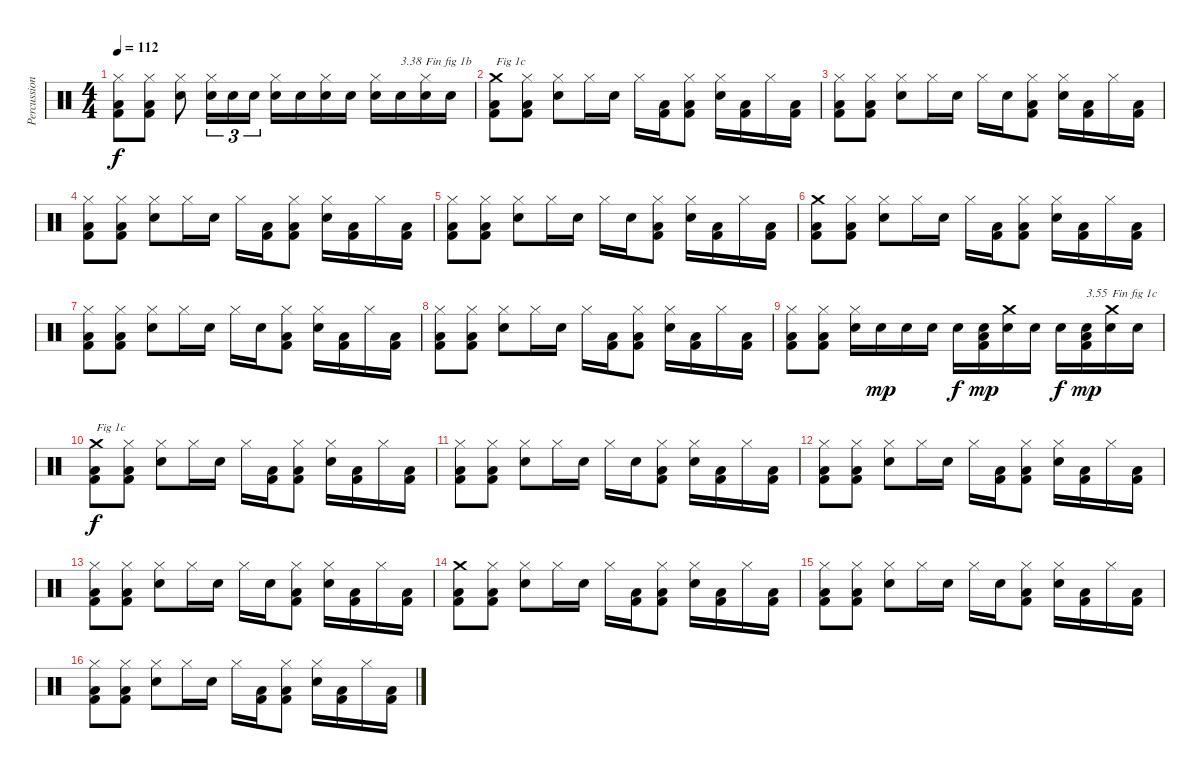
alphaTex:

\track ("Percussions" "Percussion") {instrument percussion}
\staff {score}
\articulation defaults
\ts (4 4)
\tempo 112
\clef neutral
\ks c
("Kick (hit) 2" "Low Floor Tom (hit)" "Hi-Hat (closed)").8{dy f} ("Kick (hit) 2" "Low Floor Tom (hit)" "Hi-Hat (closed)").8 ("Snare (hit) 2" "Hi-Hat (closed)").8 ("Snare (hit) 2" "Hi-Hat (closed)").16{tu (3 2)} "Snare (hit) 2".16{tu (3 2)} "Snare (hit) 2".16{tu (3 2)} ("Snare (hit) 2" "Hi-Hat (closed)").16 "Snare (hit) 2".16 ("Snare (hit) 2" "Hi-Hat (closed)").16 "Snare (hit) 2".16 ("Snare (hit) 2" "Hi-Hat (closed)").16 "Snare (hit) 2".16{txt "3.38"} ("Snare (hit) 2" "Hi-Hat (closed)").16{txt "Fin fig 1b"} "Snare (hit) 2".16 |
("Kick (hit) 2" "Low Floor Tom (hit)" "Crash medium (hit)").8{txt "Fig 1c"} ("Kick (hit) 2" "Low Floor Tom (hit)" "Hi-Hat (closed)").8 ("Snare (hit) 2" "Hi-Hat (closed)").8 "Hi-Hat (closed)".16 "Snare (hit) 2".16 "Hi-Hat (closed)".16 ("Kick (hit) 2" "Low Floor Tom (hit)").16 ("Kick (hit) 2" "Low Floor Tom (hit)" "Hi-Hat (closed)").8 ("Snare (hit) 2" "Hi-Hat (closed)").16 ("Kick (hit) 2" "Low Floor Tom (hit)").16 "Hi-Hat (closed)".16 ("Kick (hit) 2" "Low Floor Tom (hit)").16 |
("Kick (hit) 2" "Low Floor Tom (hit)" "Hi-Hat (closed)").8 ("Kick (hit) 2" "Low Floor Tom (hit)" "Hi-Hat (closed)").8 ("Snare (hit) 2" "Hi-Hat (closed)").8 "Hi-Hat (closed)".16 "Snare (hit) 2".16 "Hi-Hat (closed)".16 "Snare (hit) 2".16 ("Kick (hit) 2" "Low Floor Tom (hit)" "Hi-Hat (closed)").8 ("Snare (hit) 2" "Hi-Hat (closed)").16 ("Kick (hit) 2" "Low Floor Tom (hit)").16 "Hi-Hat (closed)".16 ("Kick (hit) 2" "Low Floor Tom (hit)").16 |
("Kick (hit) 2" "Low Floor Tom (hit)" "Hi-Hat (closed)").8 ("Kick (hit) 2" "Low Floor Tom (hit)" "Hi-Hat (closed)").8 ("Snare (hit) 2" "Hi-Hat (closed)").8 "Hi-Hat (closed)".16 "Snare (hit) 2".16 "Hi-Hat (closed)".16 ("Kick (hit) 2" "Low Floor Tom (hit)").16 ("Kick (hit) 2" "Low Floor Tom (hit)" "Hi-Hat (closed)").8 ("Snare (hit) 2" "Hi-Hat (closed)").16 ("Kick (hit) 2" "Low Floor Tom (hit)").16 "Hi-Hat (closed)".16 ("Kick (hit) 2" "Low Floor Tom (hit)").16 |
("Kick (hit) 2" "Low Floor Tom (hit)" "Hi-Hat (closed)").8 ("Kick (hit) 2" "Low Floor Tom (hit)" "Hi-Hat (closed)").8 ("Snare (hit) 2" "Hi-Hat (closed)").8 "Hi-Hat (closed)".16 "Snare (hit) 2".16 "Hi-Hat (closed)".16 "Snare (hit) 2".16 ("Kick (hit) 2" "Low Floor Tom (hit)" "Hi-Hat (closed)").8 ("Snare (hit) 2" "Hi-Hat (closed)").16 ("Kick (hit) 2" "Low Floor Tom (hit)").16 "Hi-Hat (closed)".16 ("Kick (hit) 2" "Low Floor Tom (hit)").16 |
("Kick (hit) 2" "Low Floor Tom (hit)" "Crash medium (hit)").8 ("Kick (hit) 2" "Low Floor Tom (hit)" "Hi-Hat (closed)").8 ("Snare (hit) 2" "Hi-Hat (closed)").8 "Hi-Hat (closed)".16 "Snare (hit) 2".16 "Hi-Hat (closed)".16 ("Kick (hit) 2" "Low Floor Tom (hit)").16 ("Kick (hit) 2" "Low Floor Tom (hit)" "Hi-Hat (closed)").8 ("Snare (hit) 2" "Hi-Hat (closed)").16 ("Kick (hit) 2" "Low Floor Tom (hit)").16 "Hi-Hat (closed)".16 ("Kick (hit) 2" "Low Floor Tom (hit)").16 |
("Kick (hit) 2" "Low Floor Tom (hit)" "Hi-Hat (closed)").8 ("Kick (hit) 2" "Low Floor Tom (hit)" "Hi-Hat (closed)").8 ("Snare (hit) 2" "Hi-Hat (closed)").8 "Hi-Hat (closed)".16 "Snare (hit) 2".16 "Hi-Hat (closed)".16 "Snare (hit) 2".16 ("Kick (hit) 2" "Low Floor Tom (hit)" "Hi-Hat (closed)").8 ("Snare (hit) 2" "Hi-Hat (closed)").16 ("Kick (hit) 2" "Low Floor Tom (hit)").16 "Hi-Hat (closed)".16 ("Kick (hit) 2" "Low Floor Tom (hit)").16 |
("Kick (hit) 2" "Low Floor Tom (hit)" "Hi-Hat (closed)").8 ("Kick (hit) 2" "Low Floor Tom (hit)" "Hi-Hat (closed)").8 ("Snare (hit) 2" "Hi-Hat (closed)").8 "Hi-Hat (closed)".16 "Snare (hit) 2".16 "Hi-Hat (closed)".16 ("Kick (hit) 2" "Low Floor Tom (hit)").16 ("Kick (hit) 2" "Low Floor Tom (hit)" "Hi-Hat (closed)").8 ("Snare (hit) 2" "Hi-Hat (closed)").16 ("Kick (hit) 2" "Low Floor Tom (hit)").16 "Hi-Hat (closed)".16 ("Kick (hit) 2" "Low Floor Tom (hit)").16 |
("Kick (hit) 2" "Low Floor Tom (hit)" "Hi-Hat (closed)").8 ("Kick (hit) 2" "Low Floor Tom (hit)" "Hi-Hat (closed)").8 ("Snare (hit) 2" "Hi-Hat (closed)").16 "Snare (hit) 2".16{dy mp} "Snare (hit) 2".16 "Snare (hit) 2".16 "Snare (hit) 2".16{dy f} ("Kick (hit) 2" "Low Floor Tom (hit)" "Snare (hit) 2").16{dy mp} ("Snare (hit) 2" "Crash medium (hit)").16 "Snare (hit) 2".16 "Snare (hit) 2".16{dy f} ("Kick (hit) 2" "Low Floor Tom (hit)" "Snare (hit) 2").16{txt "3.55" dy mp} ("Snare (hit) 2" "Crash medium (hit)").16{txt "Fin fig 1c"} "Snare (hit) 2".16 |
("Kick (hit) 2" "Low Floor Tom (hit)" "Crash medium (hit)").8{txt "Fig 1c" dy f} ("Kick (hit) 2" "Low Floor Tom (hit)" "Hi-Hat (closed)").8 ("Snare (hit) 2" "Hi-Hat (closed)").8 "Hi-Hat (closed)".16 "Snare (hit) 2".16 "Hi-Hat (closed)".16 ("Kick (hit) 2" "Low Floor Tom (hit)").16 ("Kick (hit) 2" "Low Floor Tom (hit)" "Hi-Hat (closed)").8 ("Snare (hit) 2" "Hi-Hat (closed)").16 ("Kick (hit) 2" "Low Floor Tom (hit)").16 "Hi-Hat (closed)".16 ("Kick (hit) 2" "Low Floor Tom (hit)").16 |
("Kick (hit) 2" "Low Floor Tom (hit)" "Hi-Hat (closed)").8 ("Kick (hit) 2" "Low Floor Tom (hit)" "Hi-Hat (closed)").8 ("Snare (hit) 2" "Hi-Hat (closed)").8 "Hi-Hat (closed)".16 "Snare (hit) 2".16 "Hi-Hat (closed)".16 "Snare (hit) 2".16 ("Kick (hit) 2" "Low Floor Tom (hit)" "Hi-Hat (closed)").8 ("Snare (hit) 2" "Hi-Hat (closed)").16 ("Kick (hit) 2" "Low Floor Tom (hit)").16 "Hi-Hat (closed)".16 ("Kick (hit) 2" "Low Floor Tom (hit)").16 |
("Kick (hit) 2" "Low Floor Tom (hit)" "Hi-Hat (closed)").8 ("Kick (hit) 2" "Low Floor Tom (hit)" "Hi-Hat (closed)").8 ("Snare (hit) 2" "Hi-Hat (closed)").8 "Hi-Hat (closed)".16 "Snare (hit) 2".16 "Hi-Hat (closed)".16 ("Kick (hit) 2" "Low Floor Tom (hit)").16 ("Kick (hit) 2" "Low Floor Tom (hit)" "Hi-Hat (closed)").8 ("Snare (hit) 2" "Hi-Hat (closed)").16 ("Kick (hit) 2" "Low Floor Tom (hit)").16 "Hi-Hat (closed)".16 ("Kick (hit) 2" "Low Floor Tom (hit)").16 |
("Kick (hit) 2" "Low Floor Tom (hit)" "Hi-Hat (closed)").8 ("Kick (hit) 2" "Low Floor Tom (hit)" "Hi-Hat (closed)").8 ("Snare (hit) 2" "Hi-Hat (closed)").8 "Hi-Hat (closed)".16 "Snare (hit) 2".16 "Hi-Hat (closed)".16 "Snare (hit) 2".16 ("Kick (hit) 2" "Low Floor Tom (hit)" "Hi-Hat (closed)").8 ("Snare (hit) 2" "Hi-Hat (closed)").16 ("Kick (hit) 2" "Low Floor Tom (hit)").16 "Hi-Hat (closed)".16 ("Kick (hit) 2" "Low Floor Tom (hit)").16 |
("Kick (hit) 2" "Low Floor Tom (hit)" "Crash medium (hit)").8 ("Kick (hit) 2" "Low Floor Tom (hit)" "Hi-Hat (closed)").8 ("Snare (hit) 2" "Hi-Hat (closed)").8 "Hi-Hat (closed)".16 "Snare (hit) 2".16 "Hi-Hat (closed)".16 ("Kick (hit) 2" "Low Floor Tom (hit)").16 ("Kick (hit) 2" "Low Floor Tom (hit)" "Hi-Hat (closed)").8 ("Snare (hit) 2" "Hi-Hat (closed)").16 ("Kick (hit) 2" "Low Floor Tom (hit)").16 "Hi-Hat (closed)".16 ("Kick (hit) 2" "Low Floor Tom (hit)").16 |
("Kick (hit) 2" "Low Floor Tom (hit)" "Hi-Hat (closed)").8 ("Kick (hit) 2" "Low Floor Tom (hit)" "Hi-Hat (closed)").8 ("Snare (hit) 2" "Hi-Hat (closed)").8 "Hi-Hat (closed)".16 "Snare (hit) 2".16 "Hi-Hat (closed)".16 "Snare (hit) 2".16 ("Kick (hit) 2" "Low Floor Tom (hit)" "Hi-Hat (closed)").8 ("Snare (hit) 2" "Hi-Hat (closed)").16 ("Kick (hit) 2" "Low Floor Tom (hit)").16 "Hi-Hat (closed)".16 ("Kick (hit) 2" "Low Floor Tom (hit)").16 |
("Kick (hit) 2" "Low Floor Tom (hit)" "Hi-Hat (closed)").8 ("Kick (hit) 2" "Low Floor Tom (hit)" "Hi-Hat (closed)").8 ("Snare (hit) 2" "Hi-Hat (closed)").8 "Hi-Hat (closed)".16 "Snare (hit) 2".16 "Hi-Hat (closed)".16 ("Kick (hit) 2" "Low Floor Tom (hit)").16 ("Kick (hit) 2" "Low Floor Tom (hit)" "Hi-Hat (closed)").8 ("Snare (hit) 2" "Hi-Hat (closed)").16 ("Kick (hit) 2" "Low Floor Tom (hit)").16 "Hi-Hat (closed)".16 ("Kick (hit) 2" "Low Floor Tom (hit)").16
